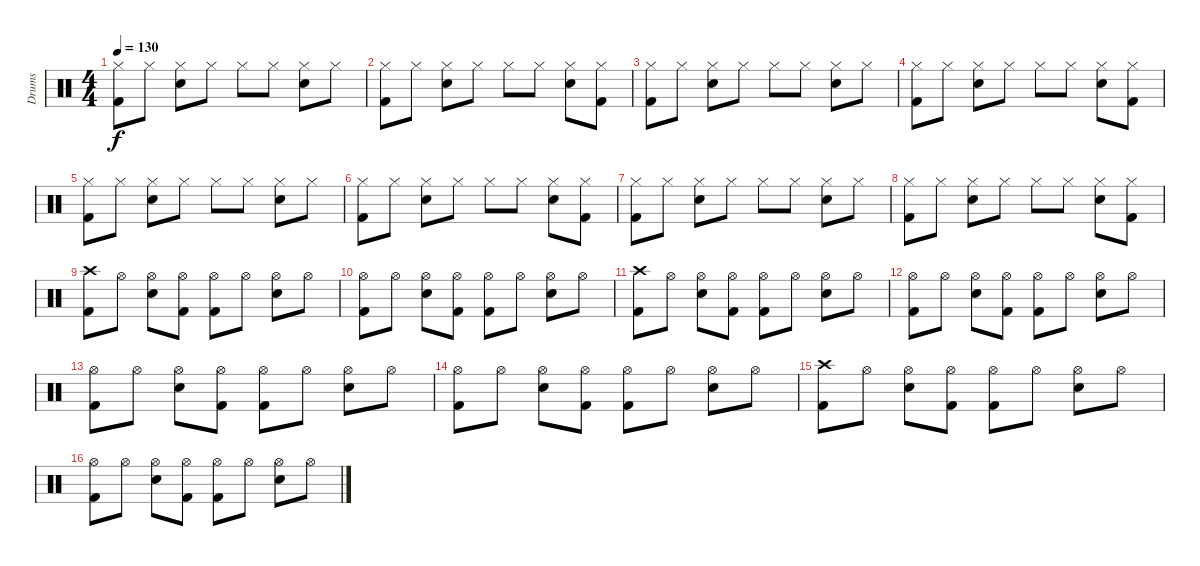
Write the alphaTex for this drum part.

\track ("Drums" "Drums") {instrument percussion}
\staff {score}
\articulation defaults
\ts (4 4)
\tempo 130
\clef neutral
\ks c
("Hi-Hat (closed)" "Kick (hit) 2").8{dy f} "Hi-Hat (closed)".8 ("Hi-Hat (closed)" "Snare (hit) 2").8 "Hi-Hat (closed)".8 "Hi-Hat (closed)".8 "Hi-Hat (closed)".8 ("Hi-Hat (closed)" "Snare (hit) 2").8 "Hi-Hat (closed)".8 |
("Hi-Hat (closed)" "Kick (hit) 2").8 "Hi-Hat (closed)".8 ("Hi-Hat (closed)" "Snare (hit) 2").8 "Hi-Hat (closed)".8 "Hi-Hat (closed)".8 "Hi-Hat (closed)".8 ("Hi-Hat (closed)" "Snare (hit) 2").8 ("Hi-Hat (closed)" "Kick (hit) 2").8 |
("Hi-Hat (closed)" "Kick (hit) 2").8 "Hi-Hat (closed)".8 ("Hi-Hat (closed)" "Snare (hit) 2").8 "Hi-Hat (closed)".8 "Hi-Hat (closed)".8 "Hi-Hat (closed)".8 ("Hi-Hat (closed)" "Snare (hit) 2").8 "Hi-Hat (closed)".8 |
("Hi-Hat (closed)" "Kick (hit) 2").8 "Hi-Hat (closed)".8 ("Hi-Hat (closed)" "Snare (hit) 2").8 "Hi-Hat (closed)".8 "Hi-Hat (closed)".8 "Hi-Hat (closed)".8 ("Hi-Hat (closed)" "Snare (hit) 2").8 ("Hi-Hat (closed)" "Kick (hit) 2").8 |
("Hi-Hat (closed)" "Kick (hit) 2").8 "Hi-Hat (closed)".8 ("Hi-Hat (closed)" "Snare (hit) 2").8 "Hi-Hat (closed)".8 "Hi-Hat (closed)".8 "Hi-Hat (closed)".8 ("Hi-Hat (closed)" "Snare (hit) 2").8 "Hi-Hat (closed)".8 |
("Hi-Hat (closed)" "Kick (hit) 2").8 "Hi-Hat (closed)".8 ("Hi-Hat (closed)" "Snare (hit) 2").8 "Hi-Hat (closed)".8 "Hi-Hat (closed)".8 "Hi-Hat (closed)".8 ("Hi-Hat (closed)" "Snare (hit) 2").8 ("Hi-Hat (closed)" "Kick (hit) 2").8 |
("Hi-Hat (closed)" "Kick (hit) 2").8 "Hi-Hat (closed)".8 ("Hi-Hat (closed)" "Snare (hit) 2").8 "Hi-Hat (closed)".8 "Hi-Hat (closed)".8 "Hi-Hat (closed)".8 ("Hi-Hat (closed)" "Snare (hit) 2").8 "Hi-Hat (closed)".8 |
("Hi-Hat (closed)" "Kick (hit) 2").8 "Hi-Hat (closed)".8 ("Hi-Hat (closed)" "Snare (hit) 2").8 "Hi-Hat (closed)".8 "Hi-Hat (closed)".8 "Hi-Hat (closed)".8 ("Hi-Hat (closed)" "Snare (hit) 2").8 ("Hi-Hat (closed)" "Kick (hit) 2").8 |
("Crash high (hit)" "Kick (hit) 2").8 "Hi-Hat (open)".8 ("Hi-Hat (open)" "Snare (hit) 2").8 ("Hi-Hat (open)" "Kick (hit) 2").8 ("Hi-Hat (open)" "Kick (hit) 2").8 "Hi-Hat (open)".8 ("Hi-Hat (open)" "Snare (hit) 2").8 "Hi-Hat (open)".8 |
("Hi-Hat (open)" "Kick (hit) 2").8 "Hi-Hat (open)".8 ("Hi-Hat (open)" "Snare (hit) 2").8 ("Hi-Hat (open)" "Kick (hit) 2").8 ("Hi-Hat (open)" "Kick (hit) 2").8 "Hi-Hat (open)".8 ("Hi-Hat (open)" "Snare (hit) 2").8 "Hi-Hat (open)".8 |
("Crash high (hit)" "Kick (hit) 2").8 "Hi-Hat (open)".8 ("Hi-Hat (open)" "Snare (hit) 2").8 ("Hi-Hat (open)" "Kick (hit) 2").8 ("Hi-Hat (open)" "Kick (hit) 2").8 "Hi-Hat (open)".8 ("Hi-Hat (open)" "Snare (hit) 2").8 "Hi-Hat (open)".8 |
("Hi-Hat (open)" "Kick (hit) 2").8 "Hi-Hat (open)".8 ("Hi-Hat (open)" "Snare (hit) 2").8 ("Hi-Hat (open)" "Kick (hit) 2").8 ("Hi-Hat (open)" "Kick (hit) 2").8 "Hi-Hat (open)".8 ("Hi-Hat (open)" "Snare (hit) 2").8 "Hi-Hat (open)".8 |
("Hi-Hat (open)" "Kick (hit) 2").8 "Hi-Hat (open)".8 ("Hi-Hat (open)" "Snare (hit) 2").8 ("Hi-Hat (open)" "Kick (hit) 2").8 ("Hi-Hat (open)" "Kick (hit) 2").8 "Hi-Hat (open)".8 ("Hi-Hat (open)" "Snare (hit) 2").8 "Hi-Hat (open)".8 |
("Hi-Hat (open)" "Kick (hit) 2").8 "Hi-Hat (open)".8 ("Hi-Hat (open)" "Snare (hit) 2").8 ("Hi-Hat (open)" "Kick (hit) 2").8 ("Hi-Hat (open)" "Kick (hit) 2").8 "Hi-Hat (open)".8 ("Hi-Hat (open)" "Snare (hit) 2").8 "Hi-Hat (open)".8 |
("Crash high (hit)" "Kick (hit) 2").8 "Hi-Hat (open)".8 ("Hi-Hat (open)" "Snare (hit) 2").8 ("Hi-Hat (open)" "Kick (hit) 2").8 ("Hi-Hat (open)" "Kick (hit) 2").8 "Hi-Hat (open)".8 ("Hi-Hat (open)" "Snare (hit) 2").8 "Hi-Hat (open)".8 |
("Hi-Hat (open)" "Kick (hit) 2").8 "Hi-Hat (open)".8 ("Hi-Hat (open)" "Snare (hit) 2").8 ("Hi-Hat (open)" "Kick (hit) 2").8 ("Hi-Hat (open)" "Kick (hit) 2").8 "Hi-Hat (open)".8 ("Hi-Hat (open)" "Snare (hit) 2").8 "Hi-Hat (open)".8
